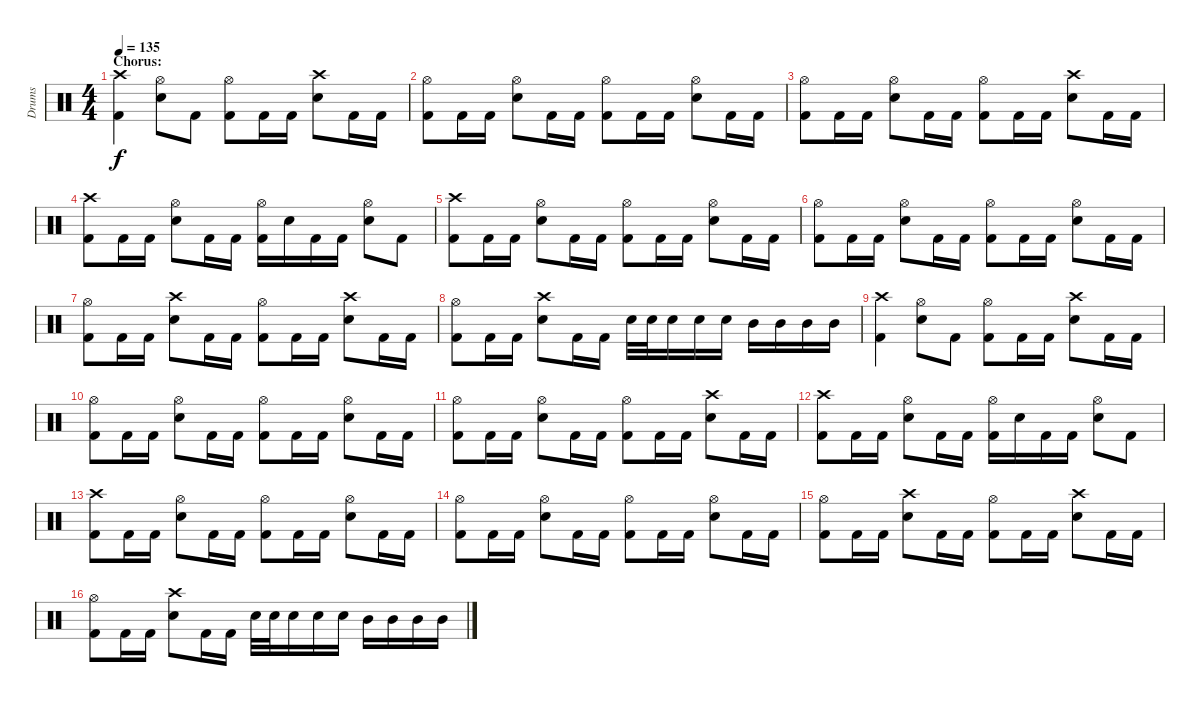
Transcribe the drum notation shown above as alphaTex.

\track ("Drums" "Drums") {instrument percussion}
\staff {score}
\articulation defaults
\ts (4 4)
\section ("" "Chorus:")
\tempo 135
\clef neutral
\ks c
("Crash high (hit)" "Kick (hit) 2").4{dy f} ("Hi-Hat (open)" "Electric Snare (hit)").8 "Kick (hit) 2".8 ("Hi-Hat (open)" "Kick (hit) 2").8 "Kick (hit) 2".16 "Kick (hit) 2".16 ("Crash high (hit)" "Electric Snare (hit)").8 "Kick (hit) 2".16 "Kick (hit) 2".16 |
("Hi-Hat (open)" "Kick (hit) 2").8 "Kick (hit) 2".16 "Kick (hit) 2".16 ("Hi-Hat (open)" "Electric Snare (hit)").8 "Kick (hit) 2".16 "Kick (hit) 2".16 ("Hi-Hat (open)" "Kick (hit) 2").8 "Kick (hit) 2".16 "Kick (hit) 2".16 ("Hi-Hat (open)" "Electric Snare (hit)").8 "Kick (hit) 2".16 "Kick (hit) 2".16 |
("Hi-Hat (open)" "Kick (hit) 2").8 "Kick (hit) 2".16 "Kick (hit) 2".16 ("Hi-Hat (open)" "Electric Snare (hit)").8 "Kick (hit) 2".16 "Kick (hit) 2".16 ("Hi-Hat (open)" "Kick (hit) 2").8 "Kick (hit) 2".16 "Kick (hit) 2".16 ("Crash high (hit)" "Electric Snare (hit)").8 "Kick (hit) 2".16 "Kick (hit) 2".16 |
("Crash high (hit)" "Kick (hit) 2").8 "Kick (hit) 2".16 "Kick (hit) 2".16 ("Hi-Hat (open)" "Electric Snare (hit)").8 "Kick (hit) 2".16 "Kick (hit) 2".16 ("Hi-Hat (open)" "Kick (hit) 2").16 "Electric Snare (hit)".16 "Kick (hit) 2".16 "Kick (hit) 2".16 ("Hi-Hat (open)" "Electric Snare (hit)").8 "Kick (hit) 2".8 |
("Crash high (hit)" "Kick (hit) 2").8 "Kick (hit) 2".16 "Kick (hit) 2".16 ("Hi-Hat (open)" "Electric Snare (hit)").8 "Kick (hit) 2".16 "Kick (hit) 2".16 ("Hi-Hat (open)" "Kick (hit) 2").8 "Kick (hit) 2".16 "Kick (hit) 2".16 ("Hi-Hat (open)" "Electric Snare (hit)").8 "Kick (hit) 2".16 "Kick (hit) 2".16 |
("Hi-Hat (open)" "Kick (hit) 2").8 "Kick (hit) 2".16 "Kick (hit) 2".16 ("Hi-Hat (open)" "Electric Snare (hit)").8 "Kick (hit) 2".16 "Kick (hit) 2".16 ("Hi-Hat (open)" "Kick (hit) 2").8 "Kick (hit) 2".16 "Kick (hit) 2".16 ("Hi-Hat (open)" "Electric Snare (hit)").8 "Kick (hit) 2".16 "Kick (hit) 2".16 |
("Hi-Hat (open)" "Kick (hit) 2").8 "Kick (hit) 2".16 "Kick (hit) 2".16 ("Crash high (hit)" "Electric Snare (hit)").8 "Kick (hit) 2".16 "Kick (hit) 2".16 ("Hi-Hat (open)" "Kick (hit) 2").8 "Kick (hit) 2".16 "Kick (hit) 2".16 ("Crash high (hit)" "Electric Snare (hit)").8 "Kick (hit) 2".16 "Kick (hit) 2".16 |
("Hi-Hat (open)" "Kick (hit) 2").8 "Kick (hit) 2".16 "Kick (hit) 2".16 ("Crash high (hit)" "Electric Snare (hit)").8 "Kick (hit) 2".16 "Kick (hit) 2".16 "Electric Snare (hit)".32 "Electric Snare (hit)".32 "Electric Snare (hit)".16 "Electric Snare (hit)".16 "Electric Snare (hit)".16 "Mid Tom (hit)".16 "Mid Tom (hit)".16 "Mid Tom (hit)".16 "Mid Tom (hit)".16 |
("Crash high (hit)" "Kick (hit) 2").4 ("Hi-Hat (open)" "Electric Snare (hit)").8 "Kick (hit) 2".8 ("Hi-Hat (open)" "Kick (hit) 2").8 "Kick (hit) 2".16 "Kick (hit) 2".16 ("Crash high (hit)" "Electric Snare (hit)").8 "Kick (hit) 2".16 "Kick (hit) 2".16 |
("Hi-Hat (open)" "Kick (hit) 2").8 "Kick (hit) 2".16 "Kick (hit) 2".16 ("Hi-Hat (open)" "Electric Snare (hit)").8 "Kick (hit) 2".16 "Kick (hit) 2".16 ("Hi-Hat (open)" "Kick (hit) 2").8 "Kick (hit) 2".16 "Kick (hit) 2".16 ("Hi-Hat (open)" "Electric Snare (hit)").8 "Kick (hit) 2".16 "Kick (hit) 2".16 |
("Hi-Hat (open)" "Kick (hit) 2").8 "Kick (hit) 2".16 "Kick (hit) 2".16 ("Hi-Hat (open)" "Electric Snare (hit)").8 "Kick (hit) 2".16 "Kick (hit) 2".16 ("Hi-Hat (open)" "Kick (hit) 2").8 "Kick (hit) 2".16 "Kick (hit) 2".16 ("Crash high (hit)" "Electric Snare (hit)").8 "Kick (hit) 2".16 "Kick (hit) 2".16 |
("Crash high (hit)" "Kick (hit) 2").8 "Kick (hit) 2".16 "Kick (hit) 2".16 ("Hi-Hat (open)" "Electric Snare (hit)").8 "Kick (hit) 2".16 "Kick (hit) 2".16 ("Hi-Hat (open)" "Kick (hit) 2").16 "Electric Snare (hit)".16 "Kick (hit) 2".16 "Kick (hit) 2".16 ("Hi-Hat (open)" "Electric Snare (hit)").8 "Kick (hit) 2".8 |
("Crash high (hit)" "Kick (hit) 2").8 "Kick (hit) 2".16 "Kick (hit) 2".16 ("Hi-Hat (open)" "Electric Snare (hit)").8 "Kick (hit) 2".16 "Kick (hit) 2".16 ("Hi-Hat (open)" "Kick (hit) 2").8 "Kick (hit) 2".16 "Kick (hit) 2".16 ("Hi-Hat (open)" "Electric Snare (hit)").8 "Kick (hit) 2".16 "Kick (hit) 2".16 |
("Hi-Hat (open)" "Kick (hit) 2").8 "Kick (hit) 2".16 "Kick (hit) 2".16 ("Hi-Hat (open)" "Electric Snare (hit)").8 "Kick (hit) 2".16 "Kick (hit) 2".16 ("Hi-Hat (open)" "Kick (hit) 2").8 "Kick (hit) 2".16 "Kick (hit) 2".16 ("Hi-Hat (open)" "Electric Snare (hit)").8 "Kick (hit) 2".16 "Kick (hit) 2".16 |
("Hi-Hat (open)" "Kick (hit) 2").8 "Kick (hit) 2".16 "Kick (hit) 2".16 ("Crash high (hit)" "Electric Snare (hit)").8 "Kick (hit) 2".16 "Kick (hit) 2".16 ("Hi-Hat (open)" "Kick (hit) 2").8 "Kick (hit) 2".16 "Kick (hit) 2".16 ("Crash high (hit)" "Electric Snare (hit)").8 "Kick (hit) 2".16 "Kick (hit) 2".16 |
("Hi-Hat (open)" "Kick (hit) 2").8 "Kick (hit) 2".16 "Kick (hit) 2".16 ("Crash high (hit)" "Electric Snare (hit)").8 "Kick (hit) 2".16 "Kick (hit) 2".16 "Electric Snare (hit)".32 "Electric Snare (hit)".32 "Electric Snare (hit)".16 "Electric Snare (hit)".16 "Electric Snare (hit)".16 "Mid Tom (hit)".16 "Mid Tom (hit)".16 "Mid Tom (hit)".16 "Mid Tom (hit)".16
